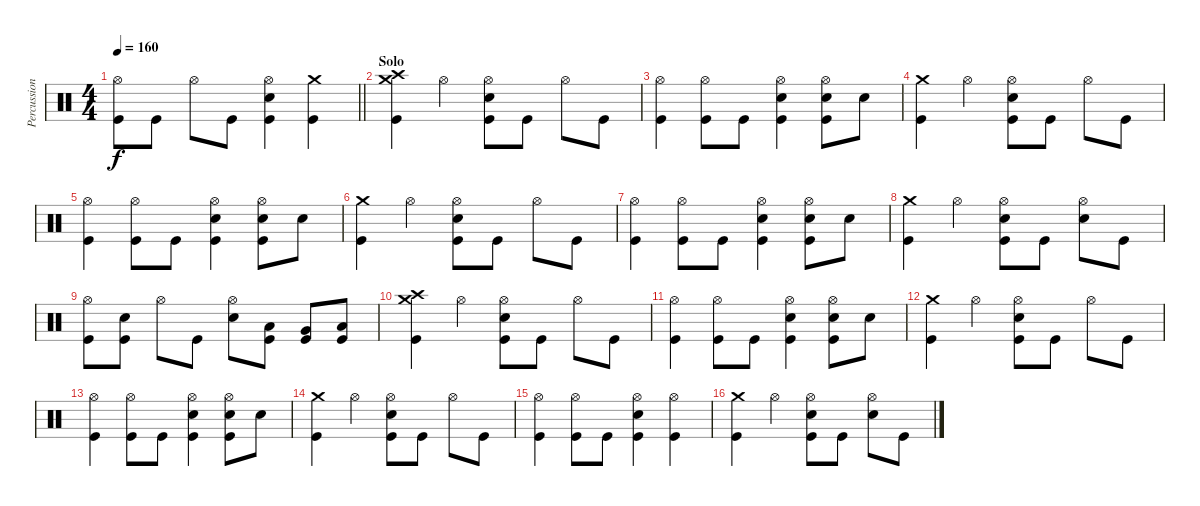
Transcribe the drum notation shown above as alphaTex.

\track ("Percussion" "Percussion") {instrument percussion}
\staff {score}
\articulation defaults
\ts (4 4)
\tempo 160
\clef neutral
\barLineRight lightlight
\ks c
("Hi-Hat (open)" "Kick (hit)").8{dy f} "Kick (hit)".8 "Hi-Hat (open)".8 "Kick (hit)".8 ("Hi-Hat (open)" "Electric Snare (hit)" "Kick (hit)").4 ("Crash medium (hit)" "Kick (hit)").4 |
\section ("" "Solo")
("Crash high (hit)" "Crash medium (hit)" "Kick (hit)").4 "Hi-Hat (open)".4 ("Hi-Hat (open)" "Electric Snare (hit)" "Kick (hit)").8 "Kick (hit)".8 "Hi-Hat (open)".8 "Kick (hit)".8 |
("Hi-Hat (open)" "Kick (hit)").4 ("Hi-Hat (open)" "Kick (hit)").8 "Kick (hit)".8 ("Hi-Hat (open)" "Electric Snare (hit)" "Kick (hit)").4 ("Hi-Hat (open)" "Electric Snare (hit)" "Kick (hit)").8 "Electric Snare (hit)".8 |
("Crash medium (hit)" "Kick (hit)").4 "Hi-Hat (open)".4 ("Hi-Hat (open)" "Electric Snare (hit)" "Kick (hit)").8 "Kick (hit)".8 "Hi-Hat (open)".8 "Kick (hit)".8 |
("Hi-Hat (open)" "Kick (hit)").4 ("Hi-Hat (open)" "Kick (hit)").8 "Kick (hit)".8 ("Hi-Hat (open)" "Electric Snare (hit)" "Kick (hit)").4 ("Hi-Hat (open)" "Electric Snare (hit)" "Kick (hit)").8 "Electric Snare (hit)".8 |
("Crash medium (hit)" "Kick (hit)").4 "Hi-Hat (open)".4 ("Hi-Hat (open)" "Electric Snare (hit)" "Kick (hit)").8 "Kick (hit)".8 "Hi-Hat (open)".8 "Kick (hit)".8 |
("Hi-Hat (open)" "Kick (hit)").4 ("Hi-Hat (open)" "Kick (hit)").8 "Kick (hit)".8 ("Hi-Hat (open)" "Electric Snare (hit)" "Kick (hit)").4 ("Hi-Hat (open)" "Electric Snare (hit)" "Kick (hit)").8 "Electric Snare (hit)".8 |
("Crash medium (hit)" "Kick (hit)").4 "Hi-Hat (open)".4 ("Hi-Hat (open)" "Electric Snare (hit)" "Kick (hit)").8 "Kick (hit)".8 ("Hi-Hat (open)" "Electric Snare (hit)").8 "Kick (hit)".8 |
("Hi-Hat (open)" "Kick (hit)").8 ("Electric Snare (hit)" "Kick (hit)").8 "Hi-Hat (open)".8 "Kick (hit)".8 ("Hi-Hat (open)" "Electric Snare (hit)").8 ("Low Tom (hit)" "Kick (hit)").8 ("Very Low Tom (hit)" "Kick (hit)").8 ("Low Floor Tom (hit)" "Kick (hit)").8 |
("Crash high (hit)" "Crash medium (hit)" "Kick (hit)").4 "Hi-Hat (open)".4 ("Hi-Hat (open)" "Electric Snare (hit)" "Kick (hit)").8 "Kick (hit)".8 "Hi-Hat (open)".8 "Kick (hit)".8 |
("Hi-Hat (open)" "Kick (hit)").4 ("Hi-Hat (open)" "Kick (hit)").8 "Kick (hit)".8 ("Hi-Hat (open)" "Electric Snare (hit)" "Kick (hit)").4 ("Hi-Hat (open)" "Electric Snare (hit)" "Kick (hit)").8 "Electric Snare (hit)".8 |
("Crash medium (hit)" "Kick (hit)").4 "Hi-Hat (open)".4 ("Hi-Hat (open)" "Electric Snare (hit)" "Kick (hit)").8 "Kick (hit)".8 "Hi-Hat (open)".8 "Kick (hit)".8 |
("Hi-Hat (open)" "Kick (hit)").4 ("Hi-Hat (open)" "Kick (hit)").8 "Kick (hit)".8 ("Hi-Hat (open)" "Electric Snare (hit)" "Kick (hit)").4 ("Hi-Hat (open)" "Electric Snare (hit)" "Kick (hit)").8 "Electric Snare (hit)".8 |
("Crash medium (hit)" "Kick (hit)").4 "Hi-Hat (open)".4 ("Hi-Hat (open)" "Electric Snare (hit)" "Kick (hit)").8 "Kick (hit)".8 "Hi-Hat (open)".8 "Kick (hit)".8 |
("Hi-Hat (open)" "Kick (hit)").4 ("Hi-Hat (open)" "Kick (hit)").8 "Kick (hit)".8 ("Hi-Hat (open)" "Electric Snare (hit)" "Kick (hit)").4 ("Hi-Hat (open)" "Kick (hit)").4 |
("Crash medium (hit)" "Kick (hit)").4 "Hi-Hat (open)".4 ("Hi-Hat (open)" "Electric Snare (hit)" "Kick (hit)").8 "Kick (hit)".8 ("Hi-Hat (open)" "Electric Snare (hit)").8 "Kick (hit)".8
